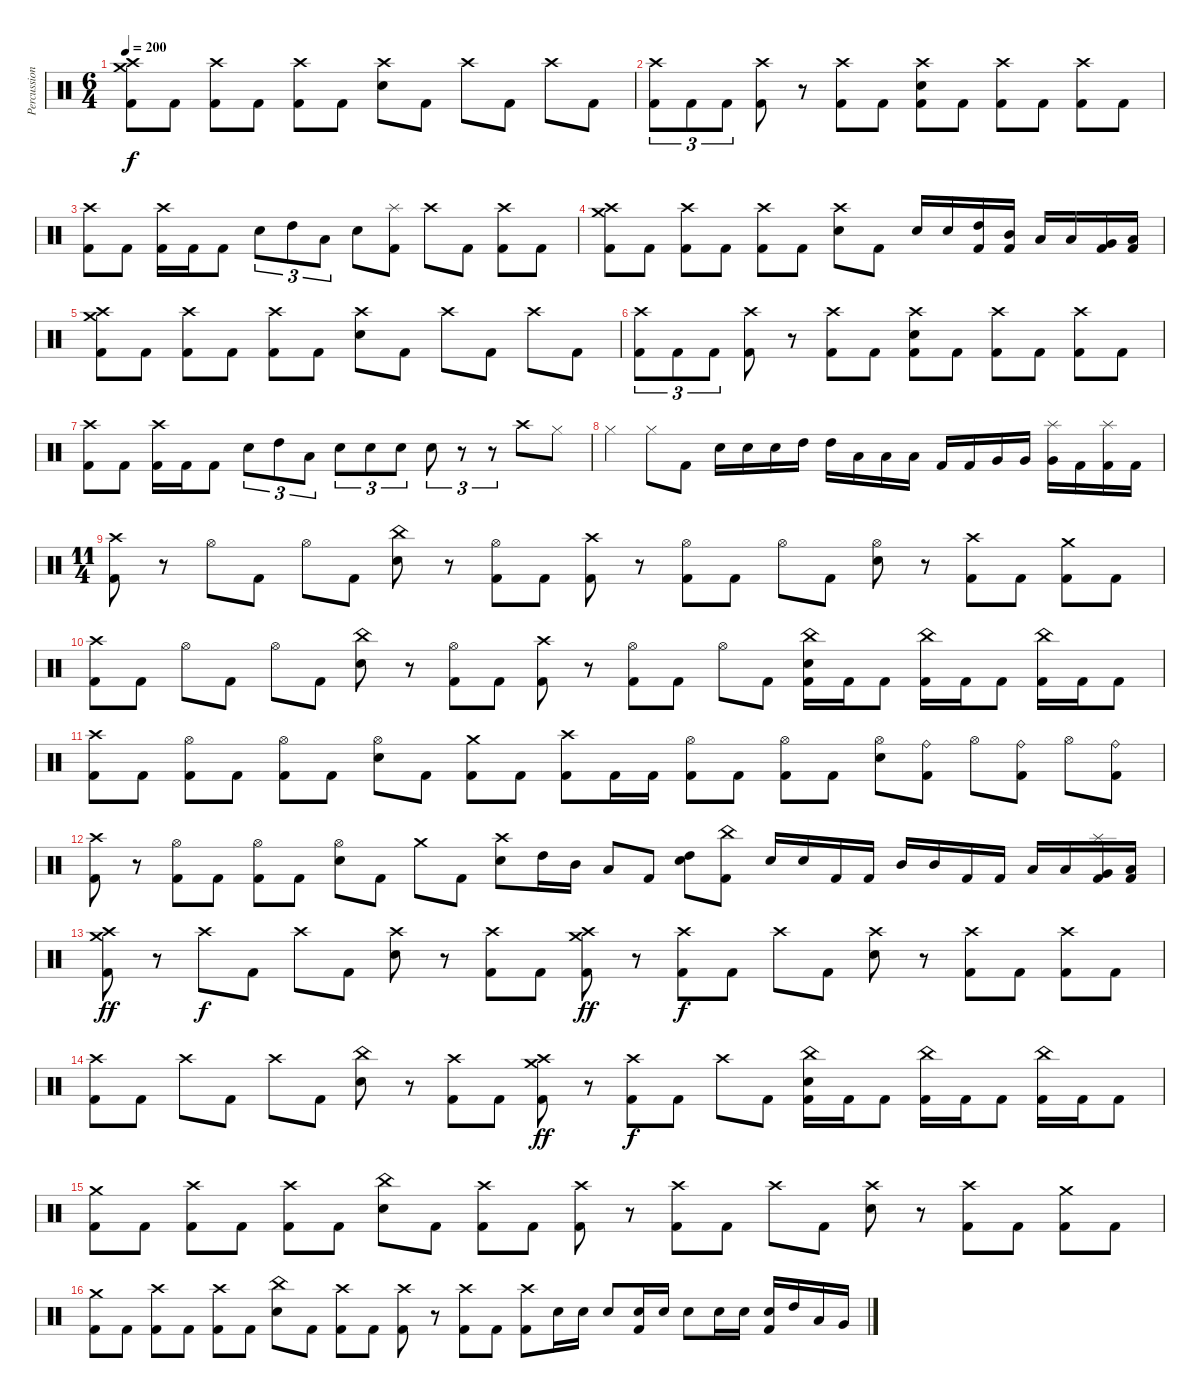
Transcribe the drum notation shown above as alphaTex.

\track ("Percussion" "Percussion") {instrument percussion}
\staff {score}
\articulation defaults
\ts (6 4)
\tempo 200
\clef neutral
\ks c
("Crash high (hit)" "Crash medium (hit)" "Kick (hit) 2").8{dy f} "Kick (hit) 2".8 ("Crash high (hit)" "Kick (hit) 2").8 "Kick (hit) 2".8 ("Crash high (hit)" "Kick (hit) 2").8 "Kick (hit) 2".8 ("Crash high (hit)" "Electric Snare (hit)").8 "Kick (hit) 2".8 "Crash high (hit)".8 "Kick (hit) 2".8 "Crash high (hit)".8 "Kick (hit) 2".8 |
("Crash high (hit)" "Kick (hit) 2").8{tu (3 2)} "Kick (hit) 2".8{tu (3 2)} "Kick (hit) 2".8{tu (3 2)} ("Crash high (hit)" "Kick (hit) 2").8 r.8 ("Crash high (hit)" "Kick (hit) 2").8 "Kick (hit) 2".8 ("Electric Snare (hit)" "Crash high (hit)" "Kick (hit) 2").8 "Kick (hit) 2".8 ("Crash high (hit)" "Kick (hit) 2").8 "Kick (hit) 2".8 ("Crash high (hit)" "Kick (hit) 2").8 "Kick (hit) 2".8 |
("Kick (hit) 2" "Crash high (hit)").8 "Kick (hit) 2".8 ("Kick (hit) 2" "Crash high (hit)").16 "Kick (hit) 2".16 "Kick (hit) 2".8 "Electric Snare (hit)".8{tu (3 2)} "High Tom (hit)".8{tu (3 2)} "Low Tom (hit)".8{tu (3 2)} "Electric Snare (hit)".8 ("Kick (hit) 2" "Splash (hit)").8 "Crash high (hit)".8 "Kick (hit) 2".8 ("Crash high (hit)" "Kick (hit) 2").8 "Kick (hit) 2".8 |
("Crash high (hit)" "Crash medium (hit)" "Kick (hit) 2").8 "Kick (hit) 2".8 ("Crash high (hit)" "Kick (hit) 2").8 "Kick (hit) 2".8 ("Crash high (hit)" "Kick (hit) 2").8 "Kick (hit) 2".8 ("Crash high (hit)" "Electric Snare (hit)").8 "Kick (hit) 2".8 "Electric Snare (hit)".16 "Electric Snare (hit)".16 ("High Tom (hit)" "Kick (hit) 2").16 ("Mid Tom (hit)" "Kick (hit) 2").16 "Low Tom (hit)".16 "Low Tom (hit)".16 ("Very Low Tom (hit)" "Kick (hit) 2").16 ("Low Floor Tom (hit)" "Kick (hit) 2").16 |
("Crash high (hit)" "Crash medium (hit)" "Kick (hit) 2").8 "Kick (hit) 2".8 ("Crash high (hit)" "Kick (hit) 2").8 "Kick (hit) 2".8 ("Crash high (hit)" "Kick (hit) 2").8 "Kick (hit) 2".8 ("Crash high (hit)" "Electric Snare (hit)").8 "Kick (hit) 2".8 "Crash high (hit)".8 "Kick (hit) 2".8 "Crash high (hit)".8 "Kick (hit) 2".8 |
("Crash high (hit)" "Kick (hit) 2").8{tu (3 2)} "Kick (hit) 2".8{tu (3 2)} "Kick (hit) 2".8{tu (3 2)} ("Crash high (hit)" "Kick (hit) 2").8 r.8 ("Crash high (hit)" "Kick (hit) 2").8 "Kick (hit) 2".8 ("Electric Snare (hit)" "Crash high (hit)" "Kick (hit) 2").8 "Kick (hit) 2".8 ("Crash high (hit)" "Kick (hit) 2").8 "Kick (hit) 2".8 ("Crash high (hit)" "Kick (hit) 2").8 "Kick (hit) 2".8 |
("Kick (hit) 2" "Crash high (hit)").8 "Kick (hit) 2".8 ("Kick (hit) 2" "Crash high (hit)").16 "Kick (hit) 2".16 "Kick (hit) 2".8 "Electric Snare (hit)".8{tu (3 2)} "High Tom (hit)".8{tu (3 2)} "Low Tom (hit)".8{tu (3 2)} "Electric Snare (hit)".8{tu (3 2)} "Electric Snare (hit)".8{tu (3 2)} "Electric Snare (hit)".8{tu (3 2)} "Electric Snare (hit)".8{tu (3 2)} r.8{tu (3 2)} r.8{tu (3 2)} "Crash high (hit)".8 "Hi-Hat (closed)".8 |
"Hi-Hat (closed)".4 "Hi-Hat (closed)".8 "Kick (hit) 2".8 "Electric Snare (hit)".16 "Electric Snare (hit)".16 "Electric Snare (hit)".16 "High Tom (hit)".16 "High Tom (hit)".16 "Low Tom (hit)".16 "Low Tom (hit)".16 "Low Tom (hit)".16 "Kick (hit) 2".16 "Kick (hit) 2".16 "Very Low Tom (hit)".16 "Very Low Tom (hit)".16 ("Splash (hit)" "Very Low Tom (hit)").16 "Kick (hit) 2".16 ("Kick (hit) 2" "Splash (hit)").16 "Kick (hit) 2".16 |
\ts (11 4)
("Kick (hit) 2" "Crash high (hit)").8 r.8 "Hi-Hat (open)".8 "Kick (hit) 2".8 "Hi-Hat (open)".8 "Kick (hit) 2".8 ("China (hit)" "Electric Snare (hit)").8 r.8 ("Hi-Hat (open)" "Kick (hit) 2").8 "Kick (hit) 2".8 ("Kick (hit) 2" "Crash high (hit)").8 r.8 ("Hi-Hat (open)" "Kick (hit) 2").8 "Kick (hit) 2".8 "Hi-Hat (open)".8 "Kick (hit) 2".8 ("Hi-Hat (open)" "Electric Snare (hit)").8 r.8 ("Crash high (hit)" "Kick (hit) 2").8 "Kick (hit) 2".8 ("Crash medium (hit)" "Kick (hit) 2").8 "Kick (hit) 2".8 |
("Kick (hit) 2" "Crash high (hit)").8 "Kick (hit) 2".8 "Hi-Hat (open)".8 "Kick (hit) 2".8 "Hi-Hat (open)".8 "Kick (hit) 2".8 ("China (hit)" "Electric Snare (hit)").8 r.8 ("Hi-Hat (open)" "Kick (hit) 2").8 "Kick (hit) 2".8 ("Kick (hit) 2" "Crash high (hit)").8 r.8 ("Hi-Hat (open)" "Kick (hit) 2").8 "Kick (hit) 2".8 "Hi-Hat (open)".8 "Kick (hit) 2".8 ("China (hit)" "Kick (hit) 2" "Electric Snare (hit)").16 "Kick (hit) 2".16 "Kick (hit) 2".8 ("China (hit)" "Kick (hit) 2").16 "Kick (hit) 2".16 "Kick (hit) 2".8 ("China (hit)" "Kick (hit) 2").16 "Kick (hit) 2".16 "Kick (hit) 2".8 |
("Crash high (hit)" "Kick (hit) 2").8 "Kick (hit) 2".8 ("Hi-Hat (open)" "Kick (hit) 2").8 "Kick (hit) 2".8 ("Hi-Hat (open)" "Kick (hit) 2").8 "Kick (hit) 2".8 ("Hi-Hat (open)" "Electric Snare (hit)").8 "Kick (hit) 2".8 ("Crash medium (hit)" "Kick (hit) 2").8 "Kick (hit) 2".8 ("Kick (hit) 2" "Crash high (hit)").8 "Kick (hit) 2".16 "Kick (hit) 2".16 ("Hi-Hat (open)" "Kick (hit) 2").8 "Kick (hit) 2".8 ("Hi-Hat (open)" "Kick (hit) 2").8 "Kick (hit) 2".8 ("Hi-Hat (open)" "Electric Snare (hit)").8 ("Kick (hit) 2" "Ride (bell)").8 "Hi-Hat (open)".8 ("Ride (bell)" "Kick (hit) 2").8 "Hi-Hat (open)".8 ("Ride (bell)" "Kick (hit) 2").8 |
("Crash high (hit)" "Kick (hit) 2").8 r.8 ("Hi-Hat (open)" "Kick (hit) 2").8 "Kick (hit) 2".8 ("Hi-Hat (open)" "Kick (hit) 2").8 "Kick (hit) 2".8 ("Hi-Hat (open)" "Electric Snare (hit)").8 "Kick (hit) 2".8 "Crash medium (hit)".8 "Kick (hit) 2".8 ("Crash high (hit)" "Electric Snare (hit)").8 "High Tom (hit)".16 "Mid Tom (hit)".16 "Low Tom (hit)".8 "Kick (hit) 2".8 ("Electric Snare (hit)" "High Tom (hit)").8 ("China (hit)" "Kick (hit) 2").8 "Electric Snare (hit)".16 "Electric Snare (hit)".16 "Kick (hit) 2".16 "Kick (hit) 2".16 "Mid Tom (hit)".16 "Mid Tom (hit)".16 "Kick (hit) 2".16 "Kick (hit) 2".16 "Low Tom (hit)".16 "Low Tom (hit)".16 ("Splash (hit)" "Very Low Tom (hit)" "Kick (hit) 2").16 ("Low Floor Tom (hit)" "Kick (hit) 2").16 |
("Crash medium (hit)" "Kick (hit) 2" "Crash high (hit)").8{dy ff} r.8 "Crash high (hit)".8{dy f} "Kick (hit) 2".8 "Crash high (hit)".8 "Kick (hit) 2".8 ("Crash high (hit)" "Electric Snare (hit)").8 r.8 ("Crash high (hit)" "Kick (hit) 2").8 "Kick (hit) 2".8 ("Crash high (hit)" "Kick (hit) 2" "Crash medium (hit)").8{dy ff} r.8 ("Crash high (hit)" "Kick (hit) 2").8{dy f} "Kick (hit) 2".8 "Crash high (hit)".8 "Kick (hit) 2".8 ("Crash high (hit)" "Electric Snare (hit)").8 r.8 ("Crash high (hit)" "Kick (hit) 2").8 "Kick (hit) 2".8 ("Crash high (hit)" "Kick (hit) 2").8 "Kick (hit) 2".8 |
("Kick (hit) 2" "Crash high (hit)").8 "Kick (hit) 2".8 "Crash high (hit)".8 "Kick (hit) 2".8 "Crash high (hit)".8 "Kick (hit) 2".8 ("China (hit)" "Electric Snare (hit)").8 r.8 ("Crash high (hit)" "Kick (hit) 2").8 "Kick (hit) 2".8 ("Crash medium (hit)" "Kick (hit) 2" "Crash high (hit)").8{dy ff} r.8 ("Crash high (hit)" "Kick (hit) 2").8{dy f} "Kick (hit) 2".8 "Crash high (hit)".8 "Kick (hit) 2".8 ("China (hit)" "Kick (hit) 2" "Electric Snare (hit)").16 "Kick (hit) 2".16 "Kick (hit) 2".8 ("China (hit)" "Kick (hit) 2").16 "Kick (hit) 2".16 "Kick (hit) 2".8 ("China (hit)" "Kick (hit) 2").16 "Kick (hit) 2".16 "Kick (hit) 2".8 |
("Kick (hit) 2" "Crash medium (hit)").8 "Kick (hit) 2".8 ("Kick (hit) 2" "Crash high (hit)").8 "Kick (hit) 2".8 ("Crash high (hit)" "Kick (hit) 2").8 "Kick (hit) 2".8 ("China (hit)" "Electric Snare (hit)").8 "Kick (hit) 2".8 ("Crash high (hit)" "Kick (hit) 2").8 "Kick (hit) 2".8 ("Kick (hit) 2" "Crash high (hit)").8 r.8 ("Crash high (hit)" "Kick (hit) 2").8 "Kick (hit) 2".8 "Crash high (hit)".8 "Kick (hit) 2".8 ("Crash high (hit)" "Electric Snare (hit)").8 r.8 ("Crash high (hit)" "Kick (hit) 2").8 "Kick (hit) 2".8 ("Crash medium (hit)" "Kick (hit) 2").8 "Kick (hit) 2".8 |
("Kick (hit) 2" "Crash medium (hit)").8 "Kick (hit) 2".8 ("Kick (hit) 2" "Crash high (hit)").8 "Kick (hit) 2".8 ("Crash high (hit)" "Kick (hit) 2").8 "Kick (hit) 2".8 ("China (hit)" "Electric Snare (hit)").8 "Kick (hit) 2".8 ("Crash high (hit)" "Kick (hit) 2").8 "Kick (hit) 2".8 ("Kick (hit) 2" "Crash high (hit)").8 r.8 ("Crash high (hit)" "Kick (hit) 2").8 "Kick (hit) 2".8 ("Crash high (hit)" "Kick (hit) 2").8 "Electric Snare (hit)".16 "Electric Snare (hit)".16 "Electric Snare (hit)".8 ("Electric Snare (hit)" "Kick (hit) 2").16 "Electric Snare (hit)".16 "Electric Snare (hit)".8 "Electric Snare (hit)".16 "Electric Snare (hit)".16 ("Electric Snare (hit)" "Kick (hit) 2").16 "High Tom (hit)".16 "Low Tom (hit)".16 "Very Low Tom (hit)".16
